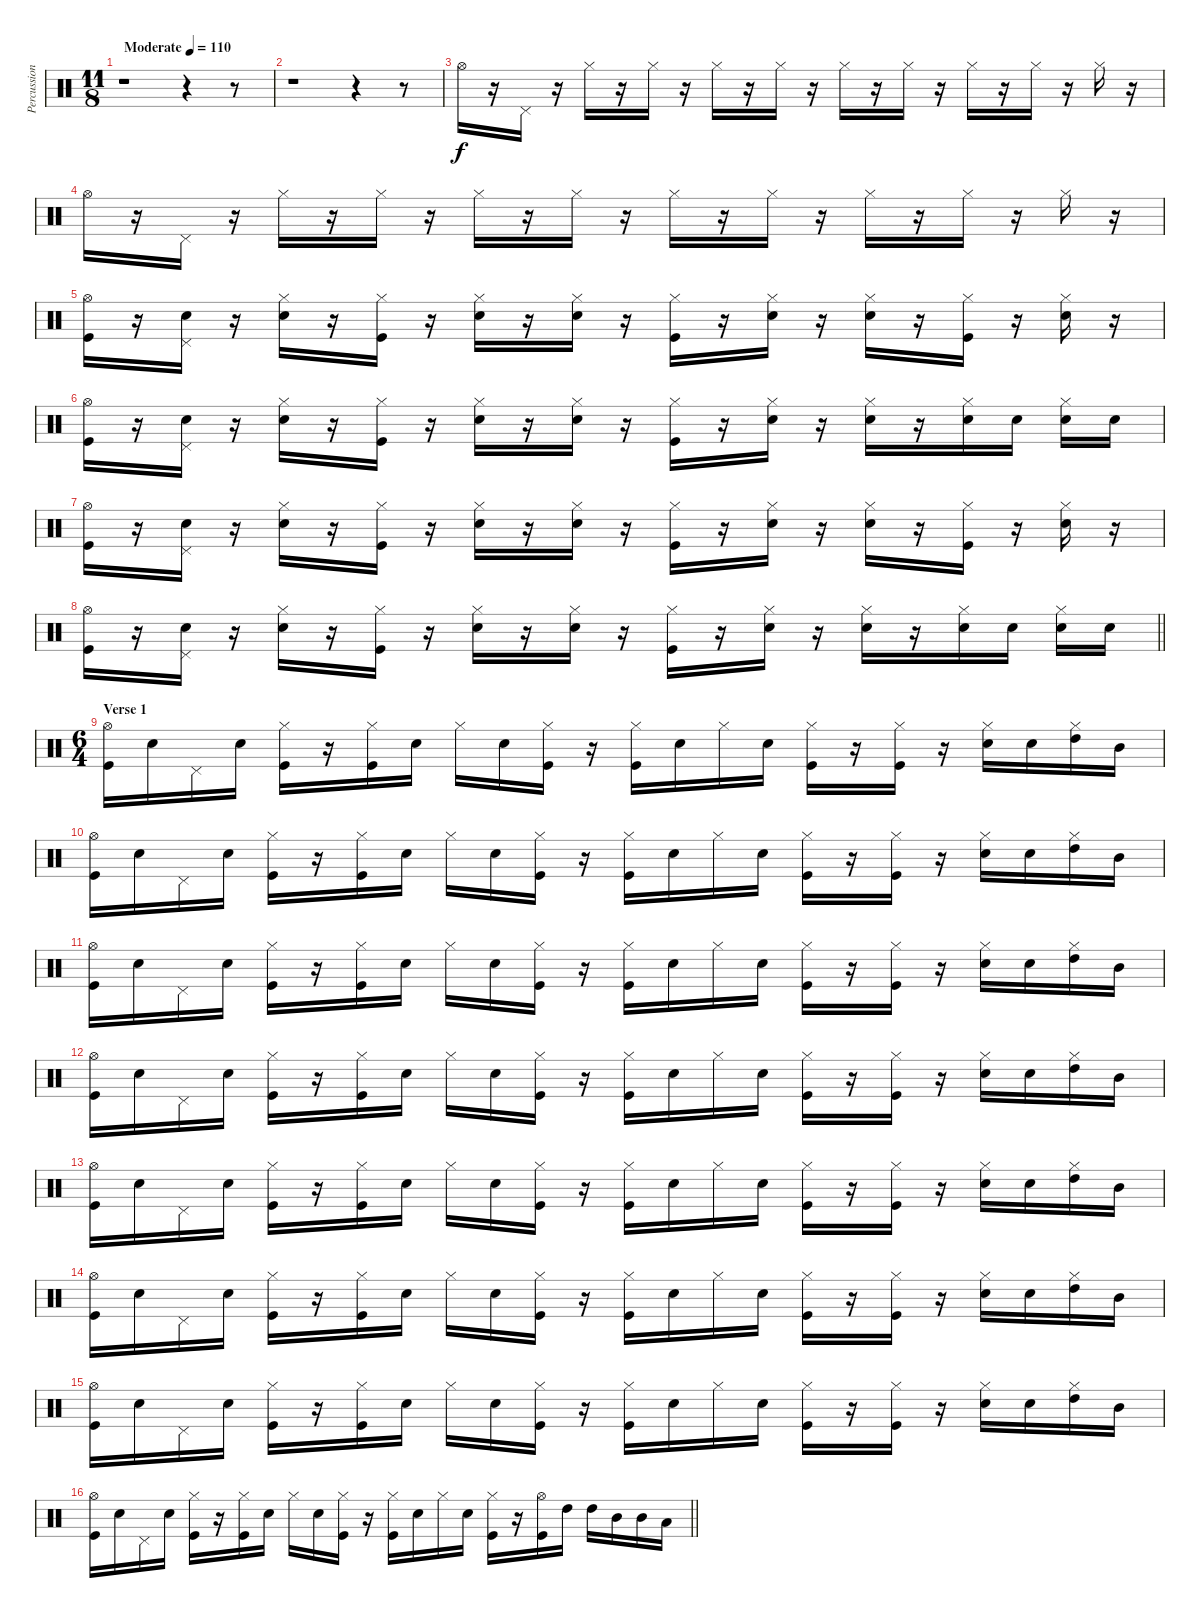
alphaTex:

\track ("Percussion 1" "Percussion") {instrument percussion}
\staff {score}
\articulation defaults
\ts (11 8)
\tempo (110 "Moderate")
\clef neutral
\ks c
r.1{dy f} r.4 r.8 |
r.1 r.4 r.8 |
"Hi-Hat (open)".16 r.16 "Pedal Hi-Hat (hit)".16 r.16 "Hi-Hat (closed)".16 r.16 "Hi-Hat (closed)".16 r.16 "Hi-Hat (closed)".16 r.16 "Hi-Hat (closed)".16 r.16 "Hi-Hat (closed)".16 r.16 "Hi-Hat (closed)".16 r.16 "Hi-Hat (closed)".16 r.16 "Hi-Hat (closed)".16 r.16 "Hi-Hat (closed)".16 r.16 |
"Hi-Hat (open)".16 r.16 "Pedal Hi-Hat (hit)".16 r.16 "Hi-Hat (closed)".16 r.16 "Hi-Hat (closed)".16 r.16 "Hi-Hat (closed)".16 r.16 "Hi-Hat (closed)".16 r.16 "Hi-Hat (closed)".16 r.16 "Hi-Hat (closed)".16 r.16 "Hi-Hat (closed)".16 r.16 "Hi-Hat (closed)".16 r.16 "Hi-Hat (closed)".16 r.16 |
("Hi-Hat (open)" "Kick (hit)").16 r.16 ("Pedal Hi-Hat (hit)" "Snare (hit) 2").16 r.16 ("Hi-Hat (closed)" "Snare (hit) 2").16 r.16 ("Hi-Hat (closed)" "Kick (hit)").16 r.16 ("Hi-Hat (closed)" "Snare (hit) 2").16 r.16 ("Hi-Hat (closed)" "Snare (hit) 2").16 r.16 ("Hi-Hat (closed)" "Kick (hit)").16 r.16 ("Hi-Hat (closed)" "Snare (hit) 2").16 r.16 ("Hi-Hat (closed)" "Snare (hit) 2").16 r.16 ("Hi-Hat (closed)" "Kick (hit)").16 r.16 ("Hi-Hat (closed)" "Snare (hit) 2").16 r.16 |
("Hi-Hat (open)" "Kick (hit)").16 r.16 ("Pedal Hi-Hat (hit)" "Snare (hit) 2").16 r.16 ("Hi-Hat (closed)" "Snare (hit) 2").16 r.16 ("Hi-Hat (closed)" "Kick (hit)").16 r.16 ("Hi-Hat (closed)" "Snare (hit) 2").16 r.16 ("Hi-Hat (closed)" "Snare (hit) 2").16 r.16 ("Hi-Hat (closed)" "Kick (hit)").16 r.16 ("Hi-Hat (closed)" "Snare (hit) 2").16 r.16 ("Hi-Hat (closed)" "Snare (hit) 2").16 r.16 ("Hi-Hat (closed)" "Snare (hit) 2").16 "Snare (hit) 2".16 ("Hi-Hat (closed)" "Snare (hit) 2").16 "Snare (hit) 2".16 |
("Hi-Hat (open)" "Kick (hit)").16 r.16 ("Pedal Hi-Hat (hit)" "Snare (hit) 2").16 r.16 ("Hi-Hat (closed)" "Snare (hit) 2").16 r.16 ("Hi-Hat (closed)" "Kick (hit)").16 r.16 ("Hi-Hat (closed)" "Snare (hit) 2").16 r.16 ("Hi-Hat (closed)" "Snare (hit) 2").16 r.16 ("Hi-Hat (closed)" "Kick (hit)").16 r.16 ("Hi-Hat (closed)" "Snare (hit) 2").16 r.16 ("Hi-Hat (closed)" "Snare (hit) 2").16 r.16 ("Hi-Hat (closed)" "Kick (hit)").16 r.16 ("Hi-Hat (closed)" "Snare (hit) 2").16 r.16 |
\barLineRight lightlight
("Hi-Hat (open)" "Kick (hit)").16 r.16 ("Pedal Hi-Hat (hit)" "Snare (hit) 2").16 r.16 ("Hi-Hat (closed)" "Snare (hit) 2").16 r.16 ("Hi-Hat (closed)" "Kick (hit)").16 r.16 ("Hi-Hat (closed)" "Snare (hit) 2").16 r.16 ("Hi-Hat (closed)" "Snare (hit) 2").16 r.16 ("Hi-Hat (closed)" "Kick (hit)").16 r.16 ("Hi-Hat (closed)" "Snare (hit) 2").16 r.16 ("Hi-Hat (closed)" "Snare (hit) 2").16 r.16 ("Hi-Hat (closed)" "Snare (hit) 2").16 "Snare (hit) 2".16 ("Hi-Hat (closed)" "Snare (hit) 2").16 "Snare (hit) 2".16 |
\ts (6 4)
\section ("" "Verse 1")
("Hi-Hat (open)" "Kick (hit)").16 "Snare (hit) 2".16 "Pedal Hi-Hat (hit)".16 "Snare (hit) 2".16 ("Hi-Hat (closed)" "Kick (hit)").16 r.16 ("Hi-Hat (closed)" "Kick (hit)").16 "Snare (hit) 2".16 "Hi-Hat (closed)".16 "Snare (hit) 2".16 ("Hi-Hat (closed)" "Kick (hit)").16 r.16 ("Hi-Hat (closed)" "Kick (hit)").16 "Snare (hit) 2".16 "Hi-Hat (closed)".16 "Snare (hit) 2".16 ("Hi-Hat (closed)" "Kick (hit)").16 r.16 ("Hi-Hat (closed)" "Kick (hit)").16 r.16 ("Hi-Hat (closed)" "Snare (hit) 2").16 "Snare (hit) 2".16 ("Hi-Hat (closed)" "High Tom (hit)").16 "Mid Tom (hit)".16 |
("Hi-Hat (open)" "Kick (hit)").16 "Snare (hit) 2".16 "Pedal Hi-Hat (hit)".16 "Snare (hit) 2".16 ("Hi-Hat (closed)" "Kick (hit)").16 r.16 ("Hi-Hat (closed)" "Kick (hit)").16 "Snare (hit) 2".16 "Hi-Hat (closed)".16 "Snare (hit) 2".16 ("Hi-Hat (closed)" "Kick (hit)").16 r.16 ("Hi-Hat (closed)" "Kick (hit)").16 "Snare (hit) 2".16 "Hi-Hat (closed)".16 "Snare (hit) 2".16 ("Hi-Hat (closed)" "Kick (hit)").16 r.16 ("Hi-Hat (closed)" "Kick (hit)").16 r.16 ("Hi-Hat (closed)" "Snare (hit) 2").16 "Snare (hit) 2".16 ("Hi-Hat (closed)" "High Tom (hit)").16 "Mid Tom (hit)".16 |
("Hi-Hat (open)" "Kick (hit)").16 "Snare (hit) 2".16 "Pedal Hi-Hat (hit)".16 "Snare (hit) 2".16 ("Hi-Hat (closed)" "Kick (hit)").16 r.16 ("Hi-Hat (closed)" "Kick (hit)").16 "Snare (hit) 2".16 "Hi-Hat (closed)".16 "Snare (hit) 2".16 ("Hi-Hat (closed)" "Kick (hit)").16 r.16 ("Hi-Hat (closed)" "Kick (hit)").16 "Snare (hit) 2".16 "Hi-Hat (closed)".16 "Snare (hit) 2".16 ("Hi-Hat (closed)" "Kick (hit)").16 r.16 ("Hi-Hat (closed)" "Kick (hit)").16 r.16 ("Hi-Hat (closed)" "Snare (hit) 2").16 "Snare (hit) 2".16 ("Hi-Hat (closed)" "High Tom (hit)").16 "Mid Tom (hit)".16 |
("Hi-Hat (open)" "Kick (hit)").16 "Snare (hit) 2".16 "Pedal Hi-Hat (hit)".16 "Snare (hit) 2".16 ("Hi-Hat (closed)" "Kick (hit)").16 r.16 ("Hi-Hat (closed)" "Kick (hit)").16 "Snare (hit) 2".16 "Hi-Hat (closed)".16 "Snare (hit) 2".16 ("Hi-Hat (closed)" "Kick (hit)").16 r.16 ("Hi-Hat (closed)" "Kick (hit)").16 "Snare (hit) 2".16 "Hi-Hat (closed)".16 "Snare (hit) 2".16 ("Hi-Hat (closed)" "Kick (hit)").16 r.16 ("Hi-Hat (closed)" "Kick (hit)").16 r.16 ("Hi-Hat (closed)" "Snare (hit) 2").16 "Snare (hit) 2".16 ("Hi-Hat (closed)" "High Tom (hit)").16 "Mid Tom (hit)".16 |
("Hi-Hat (open)" "Kick (hit)").16 "Snare (hit) 2".16 "Pedal Hi-Hat (hit)".16 "Snare (hit) 2".16 ("Hi-Hat (closed)" "Kick (hit)").16 r.16 ("Hi-Hat (closed)" "Kick (hit)").16 "Snare (hit) 2".16 "Hi-Hat (closed)".16 "Snare (hit) 2".16 ("Hi-Hat (closed)" "Kick (hit)").16 r.16 ("Hi-Hat (closed)" "Kick (hit)").16 "Snare (hit) 2".16 "Hi-Hat (closed)".16 "Snare (hit) 2".16 ("Hi-Hat (closed)" "Kick (hit)").16 r.16 ("Hi-Hat (closed)" "Kick (hit)").16 r.16 ("Hi-Hat (closed)" "Snare (hit) 2").16 "Snare (hit) 2".16 ("Hi-Hat (closed)" "High Tom (hit)").16 "Mid Tom (hit)".16 |
("Hi-Hat (open)" "Kick (hit)").16 "Snare (hit) 2".16 "Pedal Hi-Hat (hit)".16 "Snare (hit) 2".16 ("Hi-Hat (closed)" "Kick (hit)").16 r.16 ("Hi-Hat (closed)" "Kick (hit)").16 "Snare (hit) 2".16 "Hi-Hat (closed)".16 "Snare (hit) 2".16 ("Hi-Hat (closed)" "Kick (hit)").16 r.16 ("Hi-Hat (closed)" "Kick (hit)").16 "Snare (hit) 2".16 "Hi-Hat (closed)".16 "Snare (hit) 2".16 ("Hi-Hat (closed)" "Kick (hit)").16 r.16 ("Hi-Hat (closed)" "Kick (hit)").16 r.16 ("Hi-Hat (closed)" "Snare (hit) 2").16 "Snare (hit) 2".16 ("Hi-Hat (closed)" "High Tom (hit)").16 "Mid Tom (hit)".16 |
("Hi-Hat (open)" "Kick (hit)").16 "Snare (hit) 2".16 "Pedal Hi-Hat (hit)".16 "Snare (hit) 2".16 ("Hi-Hat (closed)" "Kick (hit)").16 r.16 ("Hi-Hat (closed)" "Kick (hit)").16 "Snare (hit) 2".16 "Hi-Hat (closed)".16 "Snare (hit) 2".16 ("Hi-Hat (closed)" "Kick (hit)").16 r.16 ("Hi-Hat (closed)" "Kick (hit)").16 "Snare (hit) 2".16 "Hi-Hat (closed)".16 "Snare (hit) 2".16 ("Hi-Hat (closed)" "Kick (hit)").16 r.16 ("Hi-Hat (closed)" "Kick (hit)").16 r.16 ("Hi-Hat (closed)" "Snare (hit) 2").16 "Snare (hit) 2".16 ("Hi-Hat (closed)" "High Tom (hit)").16 "Mid Tom (hit)".16 |
\barLineRight lightlight
("Hi-Hat (open)" "Kick (hit)").16 "Snare (hit) 2".16 "Pedal Hi-Hat (hit)".16 "Snare (hit) 2".16 ("Hi-Hat (closed)" "Kick (hit)").16 r.16 ("Hi-Hat (closed)" "Kick (hit)").16 "Snare (hit) 2".16 "Hi-Hat (closed)".16 "Snare (hit) 2".16 ("Hi-Hat (closed)" "Kick (hit)").16 r.16 ("Hi-Hat (closed)" "Kick (hit)").16 "Snare (hit) 2".16 "Hi-Hat (closed)".16 "Snare (hit) 2".16 ("Hi-Hat (closed)" "Kick (hit)").16 r.16 ("Hi-Hat (open)" "Kick (hit)").16 "High Tom (hit)".16 "High Tom (hit)".16 "Mid Tom (hit)".16 "Mid Tom (hit)".16 "Low Tom (hit)".16
